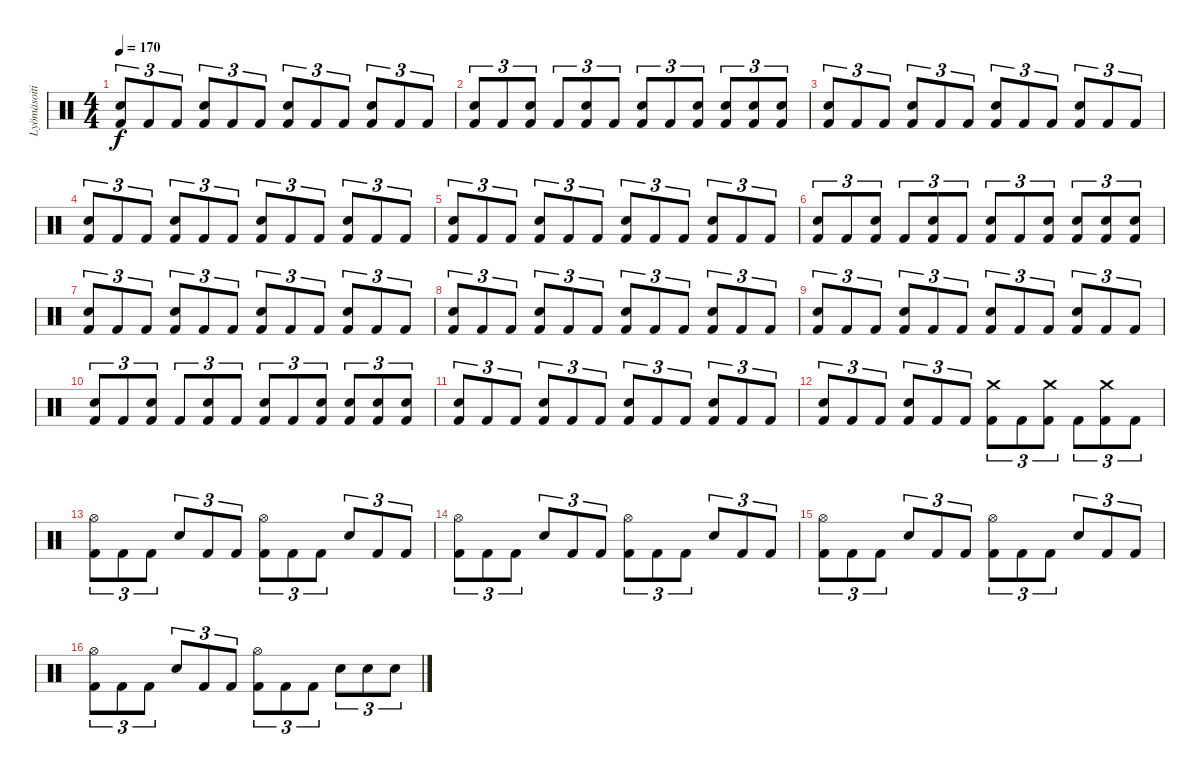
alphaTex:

\track ("Lyömäsoitin" "Lyömäsoiti") {instrument percussion}
\staff {score}
\articulation defaults
\ts (4 4)
\tempo 170
\clef neutral
\ks c
("Snare (hit) 2" "Kick (hit) 2").8{tu (3 2) dy f} "Kick (hit) 2".8{tu (3 2)} "Kick (hit) 2".8{tu (3 2)} ("Snare (hit) 2" "Kick (hit) 2").8{tu (3 2)} "Kick (hit) 2".8{tu (3 2)} "Kick (hit) 2".8{tu (3 2)} ("Snare (hit) 2" "Kick (hit) 2").8{tu (3 2)} "Kick (hit) 2".8{tu (3 2)} "Kick (hit) 2".8{tu (3 2)} ("Snare (hit) 2" "Kick (hit) 2").8{tu (3 2)} "Kick (hit) 2".8{tu (3 2)} "Kick (hit) 2".8{tu (3 2)} |
("Snare (hit) 2" "Kick (hit) 2").8{tu (3 2)} "Kick (hit) 2".8{tu (3 2)} ("Snare (hit) 2" "Kick (hit) 2").8{tu (3 2)} "Kick (hit) 2".8{tu (3 2)} ("Snare (hit) 2" "Kick (hit) 2").8{tu (3 2)} "Kick (hit) 2".8{tu (3 2)} ("Snare (hit) 2" "Kick (hit) 2").8{tu (3 2)} "Kick (hit) 2".8{tu (3 2)} ("Snare (hit) 2" "Kick (hit) 2").8{tu (3 2)} ("Snare (hit) 2" "Kick (hit) 2").8{tu (3 2)} ("Snare (hit) 2" "Kick (hit) 2").8{tu (3 2)} ("Snare (hit) 2" "Kick (hit) 2").8{tu (3 2)} |
("Snare (hit) 2" "Kick (hit) 2").8{tu (3 2)} "Kick (hit) 2".8{tu (3 2)} "Kick (hit) 2".8{tu (3 2)} ("Snare (hit) 2" "Kick (hit) 2").8{tu (3 2)} "Kick (hit) 2".8{tu (3 2)} "Kick (hit) 2".8{tu (3 2)} ("Snare (hit) 2" "Kick (hit) 2").8{tu (3 2)} "Kick (hit) 2".8{tu (3 2)} "Kick (hit) 2".8{tu (3 2)} ("Snare (hit) 2" "Kick (hit) 2").8{tu (3 2)} "Kick (hit) 2".8{tu (3 2)} "Kick (hit) 2".8{tu (3 2)} |
("Snare (hit) 2" "Kick (hit) 2").8{tu (3 2)} "Kick (hit) 2".8{tu (3 2)} "Kick (hit) 2".8{tu (3 2)} ("Snare (hit) 2" "Kick (hit) 2").8{tu (3 2)} "Kick (hit) 2".8{tu (3 2)} "Kick (hit) 2".8{tu (3 2)} ("Snare (hit) 2" "Kick (hit) 2").8{tu (3 2)} "Kick (hit) 2".8{tu (3 2)} "Kick (hit) 2".8{tu (3 2)} ("Snare (hit) 2" "Kick (hit) 2").8{tu (3 2)} "Kick (hit) 2".8{tu (3 2)} "Kick (hit) 2".8{tu (3 2)} |
("Snare (hit) 2" "Kick (hit) 2").8{tu (3 2)} "Kick (hit) 2".8{tu (3 2)} "Kick (hit) 2".8{tu (3 2)} ("Snare (hit) 2" "Kick (hit) 2").8{tu (3 2)} "Kick (hit) 2".8{tu (3 2)} "Kick (hit) 2".8{tu (3 2)} ("Snare (hit) 2" "Kick (hit) 2").8{tu (3 2)} "Kick (hit) 2".8{tu (3 2)} "Kick (hit) 2".8{tu (3 2)} ("Snare (hit) 2" "Kick (hit) 2").8{tu (3 2)} "Kick (hit) 2".8{tu (3 2)} "Kick (hit) 2".8{tu (3 2)} |
("Snare (hit) 2" "Kick (hit) 2").8{tu (3 2)} "Kick (hit) 2".8{tu (3 2)} ("Snare (hit) 2" "Kick (hit) 2").8{tu (3 2)} "Kick (hit) 2".8{tu (3 2)} ("Snare (hit) 2" "Kick (hit) 2").8{tu (3 2)} "Kick (hit) 2".8{tu (3 2)} ("Snare (hit) 2" "Kick (hit) 2").8{tu (3 2)} "Kick (hit) 2".8{tu (3 2)} ("Snare (hit) 2" "Kick (hit) 2").8{tu (3 2)} ("Snare (hit) 2" "Kick (hit) 2").8{tu (3 2)} ("Snare (hit) 2" "Kick (hit) 2").8{tu (3 2)} ("Snare (hit) 2" "Kick (hit) 2").8{tu (3 2)} |
("Snare (hit) 2" "Kick (hit) 2").8{tu (3 2)} "Kick (hit) 2".8{tu (3 2)} "Kick (hit) 2".8{tu (3 2)} ("Snare (hit) 2" "Kick (hit) 2").8{tu (3 2)} "Kick (hit) 2".8{tu (3 2)} "Kick (hit) 2".8{tu (3 2)} ("Snare (hit) 2" "Kick (hit) 2").8{tu (3 2)} "Kick (hit) 2".8{tu (3 2)} "Kick (hit) 2".8{tu (3 2)} ("Snare (hit) 2" "Kick (hit) 2").8{tu (3 2)} "Kick (hit) 2".8{tu (3 2)} "Kick (hit) 2".8{tu (3 2)} |
("Snare (hit) 2" "Kick (hit) 2").8{tu (3 2)} "Kick (hit) 2".8{tu (3 2)} "Kick (hit) 2".8{tu (3 2)} ("Snare (hit) 2" "Kick (hit) 2").8{tu (3 2)} "Kick (hit) 2".8{tu (3 2)} "Kick (hit) 2".8{tu (3 2)} ("Snare (hit) 2" "Kick (hit) 2").8{tu (3 2)} "Kick (hit) 2".8{tu (3 2)} "Kick (hit) 2".8{tu (3 2)} ("Snare (hit) 2" "Kick (hit) 2").8{tu (3 2)} "Kick (hit) 2".8{tu (3 2)} "Kick (hit) 2".8{tu (3 2)} |
("Snare (hit) 2" "Kick (hit) 2").8{tu (3 2)} "Kick (hit) 2".8{tu (3 2)} "Kick (hit) 2".8{tu (3 2)} ("Snare (hit) 2" "Kick (hit) 2").8{tu (3 2)} "Kick (hit) 2".8{tu (3 2)} "Kick (hit) 2".8{tu (3 2)} ("Snare (hit) 2" "Kick (hit) 2").8{tu (3 2)} "Kick (hit) 2".8{tu (3 2)} "Kick (hit) 2".8{tu (3 2)} ("Snare (hit) 2" "Kick (hit) 2").8{tu (3 2)} "Kick (hit) 2".8{tu (3 2)} "Kick (hit) 2".8{tu (3 2)} |
("Snare (hit) 2" "Kick (hit) 2").8{tu (3 2)} "Kick (hit) 2".8{tu (3 2)} ("Snare (hit) 2" "Kick (hit) 2").8{tu (3 2)} "Kick (hit) 2".8{tu (3 2)} ("Snare (hit) 2" "Kick (hit) 2").8{tu (3 2)} "Kick (hit) 2".8{tu (3 2)} ("Snare (hit) 2" "Kick (hit) 2").8{tu (3 2)} "Kick (hit) 2".8{tu (3 2)} ("Snare (hit) 2" "Kick (hit) 2").8{tu (3 2)} ("Snare (hit) 2" "Kick (hit) 2").8{tu (3 2)} ("Snare (hit) 2" "Kick (hit) 2").8{tu (3 2)} ("Snare (hit) 2" "Kick (hit) 2").8{tu (3 2)} |
("Snare (hit) 2" "Kick (hit) 2").8{tu (3 2)} "Kick (hit) 2".8{tu (3 2)} "Kick (hit) 2".8{tu (3 2)} ("Snare (hit) 2" "Kick (hit) 2").8{tu (3 2)} "Kick (hit) 2".8{tu (3 2)} "Kick (hit) 2".8{tu (3 2)} ("Snare (hit) 2" "Kick (hit) 2").8{tu (3 2)} "Kick (hit) 2".8{tu (3 2)} "Kick (hit) 2".8{tu (3 2)} ("Snare (hit) 2" "Kick (hit) 2").8{tu (3 2)} "Kick (hit) 2".8{tu (3 2)} "Kick (hit) 2".8{tu (3 2)} |
("Snare (hit) 2" "Kick (hit) 2").8{tu (3 2)} "Kick (hit) 2".8{tu (3 2)} "Kick (hit) 2".8{tu (3 2)} ("Snare (hit) 2" "Kick (hit) 2").8{tu (3 2)} "Kick (hit) 2".8{tu (3 2)} "Kick (hit) 2".8{tu (3 2)} ("Crash medium (hit)" "Kick (hit) 2").8{tu (3 2)} "Kick (hit) 2".8{tu (3 2)} ("Crash medium (hit)" "Kick (hit) 2").8{tu (3 2)} "Kick (hit) 2".8{tu (3 2)} ("Crash medium (hit)" "Kick (hit) 2").8{tu (3 2)} "Kick (hit) 2".8{tu (3 2)} |
("Hi-Hat (open)" "Kick (hit) 2").8{tu (3 2)} "Kick (hit) 2".8{tu (3 2)} "Kick (hit) 2".8{tu (3 2)} "Snare (hit) 2".8{tu (3 2)} "Kick (hit) 2".8{tu (3 2)} "Kick (hit) 2".8{tu (3 2)} ("Hi-Hat (open)" "Kick (hit) 2").8{tu (3 2)} "Kick (hit) 2".8{tu (3 2)} "Kick (hit) 2".8{tu (3 2)} "Snare (hit) 2".8{tu (3 2)} "Kick (hit) 2".8{tu (3 2)} "Kick (hit) 2".8{tu (3 2)} |
("Hi-Hat (open)" "Kick (hit) 2").8{tu (3 2)} "Kick (hit) 2".8{tu (3 2)} "Kick (hit) 2".8{tu (3 2)} "Snare (hit) 2".8{tu (3 2)} "Kick (hit) 2".8{tu (3 2)} "Kick (hit) 2".8{tu (3 2)} ("Hi-Hat (open)" "Kick (hit) 2").8{tu (3 2)} "Kick (hit) 2".8{tu (3 2)} "Kick (hit) 2".8{tu (3 2)} "Snare (hit) 2".8{tu (3 2)} "Kick (hit) 2".8{tu (3 2)} "Kick (hit) 2".8{tu (3 2)} |
("Hi-Hat (open)" "Kick (hit) 2").8{tu (3 2)} "Kick (hit) 2".8{tu (3 2)} "Kick (hit) 2".8{tu (3 2)} "Snare (hit) 2".8{tu (3 2)} "Kick (hit) 2".8{tu (3 2)} "Kick (hit) 2".8{tu (3 2)} ("Hi-Hat (open)" "Kick (hit) 2").8{tu (3 2)} "Kick (hit) 2".8{tu (3 2)} "Kick (hit) 2".8{tu (3 2)} "Snare (hit) 2".8{tu (3 2)} "Kick (hit) 2".8{tu (3 2)} "Kick (hit) 2".8{tu (3 2)} |
("Hi-Hat (open)" "Kick (hit) 2").8{tu (3 2)} "Kick (hit) 2".8{tu (3 2)} "Kick (hit) 2".8{tu (3 2)} "Snare (hit) 2".8{tu (3 2)} "Kick (hit) 2".8{tu (3 2)} "Kick (hit) 2".8{tu (3 2)} ("Hi-Hat (open)" "Kick (hit) 2").8{tu (3 2)} "Kick (hit) 2".8{tu (3 2)} "Kick (hit) 2".8{tu (3 2)} "Snare (hit) 2".8{tu (3 2)} "Snare (hit) 2".8{tu (3 2)} "Snare (hit) 2".8{tu (3 2)}
